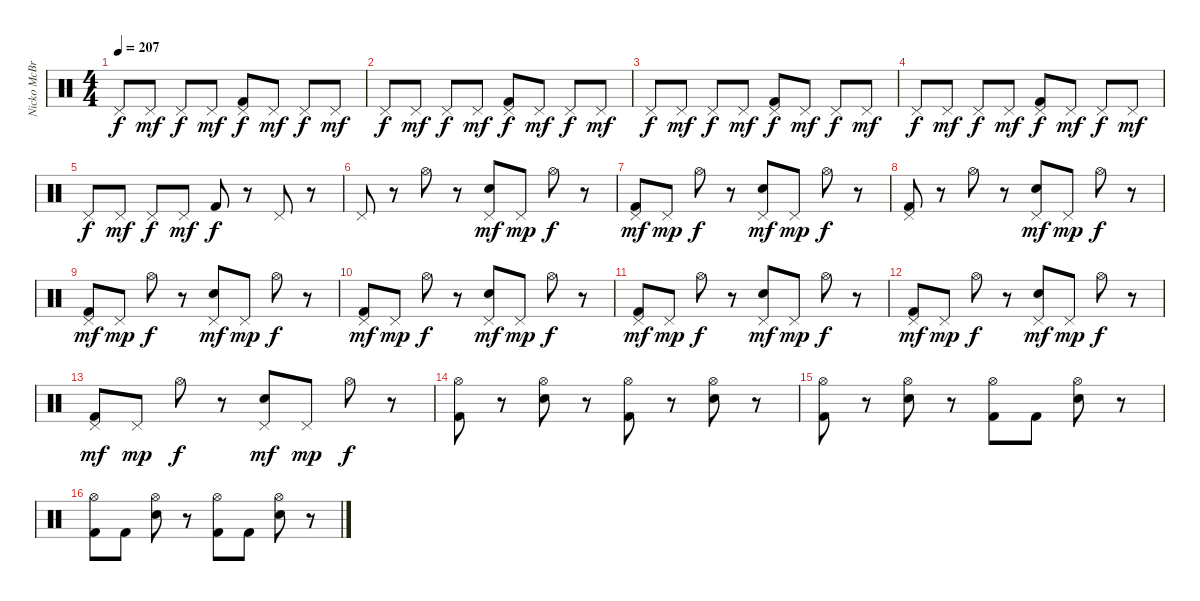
\track ("Nicko McBrain" "Nicko McBr") {instrument percussion}
\staff {score}
\articulation defaults
\ts (4 4)
\tempo 207
\clef neutral
\ks c "Pedal Hi-Hat (hit)".8{dy f} "Pedal Hi-Hat (hit)".8{dy mf} "Pedal Hi-Hat (hit)".8{dy f} "Pedal Hi-Hat (hit)".8{dy mf}
("Pedal Hi-Hat (hit)" "Kick (hit) 2").8{dy f} "Pedal Hi-Hat (hit)".8{dy mf} "Pedal Hi-Hat (hit)".8{dy f} "Pedal Hi-Hat (hit)".8{dy mf} |
"Pedal Hi-Hat (hit)".8{dy f} "Pedal Hi-Hat (hit)".8{dy mf} "Pedal Hi-Hat (hit)".8{dy f} "Pedal Hi-Hat (hit)".8{dy mf} ("Pedal Hi-Hat (hit)" "Kick (hit) 2").8{dy f} "Pedal Hi-Hat (hit)".8{dy mf} "Pedal Hi-Hat (hit)".8{dy f} "Pedal Hi-Hat (hit)".8{dy mf} |
"Pedal Hi-Hat (hit)".8{dy f} "Pedal Hi-Hat (hit)".8{dy mf} "Pedal Hi-Hat (hit)".8{dy f} "Pedal Hi-Hat (hit)".8{dy mf} ("Pedal Hi-Hat (hit)" "Kick (hit) 2").8{dy f} "Pedal Hi-Hat (hit)".8{dy mf} "Pedal Hi-Hat (hit)".8{dy f} "Pedal Hi-Hat (hit)".8{dy mf} |
"Pedal Hi-Hat (hit)".8{dy f} "Pedal Hi-Hat (hit)".8{dy mf} "Pedal Hi-Hat (hit)".8{dy f} "Pedal Hi-Hat (hit)".8{dy mf} ("Pedal Hi-Hat (hit)" "Kick (hit) 2").8{dy f} "Pedal Hi-Hat (hit)".8{dy mf} "Pedal Hi-Hat (hit)".8{dy f} "Pedal Hi-Hat (hit)".8{dy mf} |
"Pedal Hi-Hat (hit)".8{dy f} "Pedal Hi-Hat (hit)".8{dy mf} "Pedal Hi-Hat (hit)".8{dy f} "Pedal Hi-Hat (hit)".8{dy mf} "Kick (hit) 2".8{dy f} r.8 "Pedal Hi-Hat (hit)".8 r.8 |
"Pedal Hi-Hat (hit)".8 r.8 "Hi-Hat (open)".8 r.8 ("Pedal Hi-Hat (hit)" "Snare (hit) 2").8{dy mf} "Pedal Hi-Hat (hit)".8{dy mp} "Hi-Hat (open)".8{dy f} r.8 |
("Pedal Hi-Hat (hit)" "Kick (hit) 2").8{dy mf} "Pedal Hi-Hat (hit)".8{dy mp} "Hi-Hat (open)".8{dy f} r.8 ("Pedal Hi-Hat (hit)" "Snare (hit) 2").8{dy mf} "Pedal Hi-Hat (hit)".8{dy mp} "Hi-Hat (open)".8{dy f} r.8 |
("Pedal Hi-Hat (hit)" "Kick (hit) 2").8 r.8 "Hi-Hat (open)".8 r.8 ("Pedal Hi-Hat (hit)" "Snare (hit) 2").8{dy mf} "Pedal Hi-Hat (hit)".8{dy mp} "Hi-Hat (open)".8{dy f} r.8 |
("Pedal Hi-Hat (hit)" "Kick (hit) 2").8{dy mf} "Pedal Hi-Hat (hit)".8{dy mp} "Hi-Hat (open)".8{dy f} r.8 ("Pedal Hi-Hat (hit)" "Snare (hit) 2").8{dy mf} "Pedal Hi-Hat (hit)".8{dy mp} "Hi-Hat (open)".8{dy f} r.8 |
("Pedal Hi-Hat (hit)" "Kick (hit) 2").8{dy mf} "Pedal Hi-Hat (hit)".8{dy mp} "Hi-Hat (open)".8{dy f} r.8 ("Pedal Hi-Hat (hit)" "Snare (hit) 2").8{dy mf} "Pedal Hi-Hat (hit)".8{dy mp} "Hi-Hat (open)".8{dy f} r.8 |
("Pedal Hi-Hat (hit)" "Kick (hit) 2").8{dy mf} "Pedal Hi-Hat (hit)".8{dy mp} "Hi-Hat (open)".8{dy f} r.8 ("Pedal Hi-Hat (hit)" "Snare (hit) 2").8{dy mf} "Pedal Hi-Hat (hit)".8{dy mp} "Hi-Hat (open)".8{dy f} r.8 |
("Pedal Hi-Hat (hit)" "Kick (hit) 2").8{dy mf} "Pedal Hi-Hat (hit)".8{dy mp} "Hi-Hat (open)".8{dy f} r.8 ("Pedal Hi-Hat (hit)" "Snare (hit) 2").8{dy mf} "Pedal Hi-Hat (hit)".8{dy mp} "Hi-Hat (open)".8{dy f} r.8 |
("Pedal Hi-Hat (hit)" "Kick (hit) 2").8{dy mf} "Pedal Hi-Hat (hit)".8{dy mp} "Hi-Hat (open)".8{dy f} r.8 ("Pedal Hi-Hat (hit)" "Snare (hit) 2").8{dy mf} "Pedal Hi-Hat (hit)".8{dy mp} "Hi-Hat (open)".8{dy f} r.8 |
("Hi-Hat (open)" "Kick (hit) 2").8 r.8 ("Hi-Hat (open)" "Snare (hit) 2").8 r.8 ("Hi-Hat (open)" "Kick (hit) 2").8 r.8 ("Hi-Hat (open)" "Snare (hit) 2").8 r.8 |
("Hi-Hat (open)" "Kick (hit) 2").8 r.8 ("Hi-Hat (open)" "Snare (hit) 2").8 r.8 ("Hi-Hat (open)" "Kick (hit) 2").8 "Kick (hit) 2".8 ("Hi-Hat (open)" "Snare (hit) 2").8 r.8 |
("Hi-Hat (open)" "Kick (hit) 2").8 "Kick (hit) 2".8 ("Hi-Hat (open)" "Snare (hit) 2").8 r.8 ("Hi-Hat (open)" "Kick (hit) 2").8 "Kick (hit) 2".8 ("Hi-Hat (open)" "Snare (hit) 2").8 r.8
